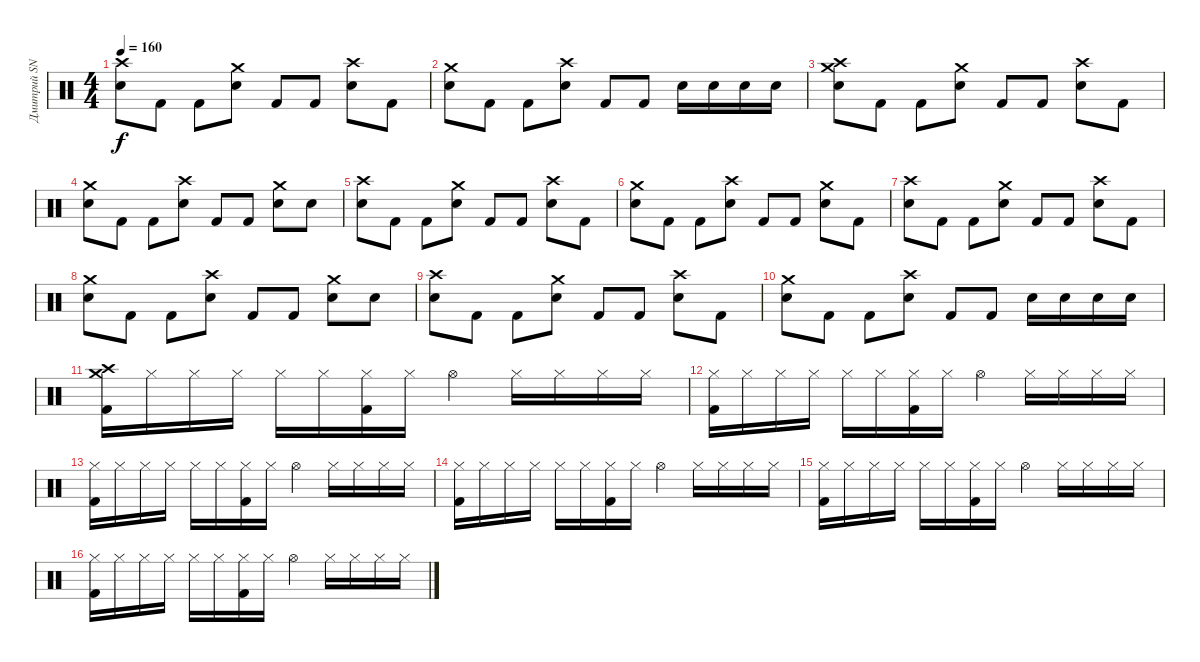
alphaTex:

\track ("Дмитрий SNAKE Хакимов" "Дмитрий SN") {instrument percussion}
\staff {score}
\articulation defaults
\ts (4 4)
\tempo 160
\clef neutral
\ks c
("Crash high (hit)" "Snare (hit) 2").8{dy f} "Kick (hit) 2".8 "Kick (hit) 2".8 ("Crash medium (hit)" "Snare (hit) 2").8 "Kick (hit) 2".8 "Kick (hit) 2".8 ("Crash high (hit)" "Snare (hit) 2").8 "Kick (hit) 2".8 |
("Crash medium (hit)" "Snare (hit) 2").8 "Kick (hit) 2".8 "Kick (hit) 2".8 ("Crash high (hit)" "Snare (hit) 2").8 "Kick (hit) 2".8 "Kick (hit) 2".8 "Snare (hit) 2".16 "Snare (hit) 2".16 "Snare (hit) 2".16 "Snare (hit) 2".16 |
("Crash high (hit)" "Crash medium (hit)" "Snare (hit) 2").8 "Kick (hit) 2".8 "Kick (hit) 2".8 ("Crash medium (hit)" "Snare (hit) 2").8 "Kick (hit) 2".8 "Kick (hit) 2".8 ("Crash high (hit)" "Snare (hit) 2").8 "Kick (hit) 2".8 |
("Crash medium (hit)" "Snare (hit) 2").8 "Kick (hit) 2".8 "Kick (hit) 2".8 ("Crash high (hit)" "Snare (hit) 2").8 "Kick (hit) 2".8 "Kick (hit) 2".8 ("Crash medium (hit)" "Snare (hit) 2").8 "Snare (hit) 2".8 |
("Crash high (hit)" "Snare (hit) 2").8 "Kick (hit) 2".8 "Kick (hit) 2".8 ("Crash medium (hit)" "Snare (hit) 2").8 "Kick (hit) 2".8 "Kick (hit) 2".8 ("Crash high (hit)" "Snare (hit) 2").8 "Kick (hit) 2".8 |
("Crash medium (hit)" "Snare (hit) 2").8 "Kick (hit) 2".8 "Kick (hit) 2".8 ("Crash high (hit)" "Snare (hit) 2").8 "Kick (hit) 2".8 "Kick (hit) 2".8 ("Crash medium (hit)" "Snare (hit) 2").8 "Kick (hit) 2".8 |
("Crash high (hit)" "Snare (hit) 2").8 "Kick (hit) 2".8 "Kick (hit) 2".8 ("Crash medium (hit)" "Snare (hit) 2").8 "Kick (hit) 2".8 "Kick (hit) 2".8 ("Crash high (hit)" "Snare (hit) 2").8 "Kick (hit) 2".8 |
("Crash medium (hit)" "Snare (hit) 2").8 "Kick (hit) 2".8 "Kick (hit) 2".8 ("Crash high (hit)" "Snare (hit) 2").8 "Kick (hit) 2".8 "Kick (hit) 2".8 ("Crash medium (hit)" "Snare (hit) 2").8 "Snare (hit) 2".8 |
("Crash high (hit)" "Snare (hit) 2").8 "Kick (hit) 2".8 "Kick (hit) 2".8 ("Crash medium (hit)" "Snare (hit) 2").8 "Kick (hit) 2".8 "Kick (hit) 2".8 ("Crash high (hit)" "Snare (hit) 2").8 "Kick (hit) 2".8 |
("Crash medium (hit)" "Snare (hit) 2").8 "Kick (hit) 2".8 "Kick (hit) 2".8 ("Crash high (hit)" "Snare (hit) 2").8 "Kick (hit) 2".8 "Kick (hit) 2".8 "Snare (hit) 2".16 "Snare (hit) 2".16 "Snare (hit) 2".16 "Snare (hit) 2".16 |
("Crash high (hit)" "Crash medium (hit)" "Kick (hit) 2").16 "Hi-Hat (closed)".16 "Hi-Hat (closed)".16 "Hi-Hat (closed)".16 "Hi-Hat (closed)".16 "Hi-Hat (closed)".16 ("Hi-Hat (closed)" "Kick (hit) 2").16 "Hi-Hat (closed)".16 "Hi-Hat (open)".4 "Hi-Hat (closed)".16 "Hi-Hat (closed)".16 "Hi-Hat (closed)".16 "Hi-Hat (closed)".16 |
("Hi-Hat (closed)" "Kick (hit) 2").16 "Hi-Hat (closed)".16 "Hi-Hat (closed)".16 "Hi-Hat (closed)".16 "Hi-Hat (closed)".16 "Hi-Hat (closed)".16 ("Hi-Hat (closed)" "Kick (hit) 2").16 "Hi-Hat (closed)".16 "Hi-Hat (open)".4 "Hi-Hat (closed)".16 "Hi-Hat (closed)".16 "Hi-Hat (closed)".16 "Hi-Hat (closed)".16 |
("Hi-Hat (closed)" "Kick (hit) 2").16 "Hi-Hat (closed)".16 "Hi-Hat (closed)".16 "Hi-Hat (closed)".16 "Hi-Hat (closed)".16 "Hi-Hat (closed)".16 ("Hi-Hat (closed)" "Kick (hit) 2").16 "Hi-Hat (closed)".16 "Hi-Hat (open)".4 "Hi-Hat (closed)".16 "Hi-Hat (closed)".16 "Hi-Hat (closed)".16 "Hi-Hat (closed)".16 |
("Hi-Hat (closed)" "Kick (hit) 2").16 "Hi-Hat (closed)".16 "Hi-Hat (closed)".16 "Hi-Hat (closed)".16 "Hi-Hat (closed)".16 "Hi-Hat (closed)".16 ("Hi-Hat (closed)" "Kick (hit) 2").16 "Hi-Hat (closed)".16 "Hi-Hat (open)".4 "Hi-Hat (closed)".16 "Hi-Hat (closed)".16 "Hi-Hat (closed)".16 "Hi-Hat (closed)".16 |
("Hi-Hat (closed)" "Kick (hit) 2").16 "Hi-Hat (closed)".16 "Hi-Hat (closed)".16 "Hi-Hat (closed)".16 "Hi-Hat (closed)".16 "Hi-Hat (closed)".16 ("Hi-Hat (closed)" "Kick (hit) 2").16 "Hi-Hat (closed)".16 "Hi-Hat (open)".4 "Hi-Hat (closed)".16 "Hi-Hat (closed)".16 "Hi-Hat (closed)".16 "Hi-Hat (closed)".16 |
("Hi-Hat (closed)" "Kick (hit) 2").16 "Hi-Hat (closed)".16 "Hi-Hat (closed)".16 "Hi-Hat (closed)".16 "Hi-Hat (closed)".16 "Hi-Hat (closed)".16 ("Hi-Hat (closed)" "Kick (hit) 2").16 "Hi-Hat (closed)".16 "Hi-Hat (open)".4 "Hi-Hat (closed)".16 "Hi-Hat (closed)".16 "Hi-Hat (closed)".16 "Hi-Hat (closed)".16
